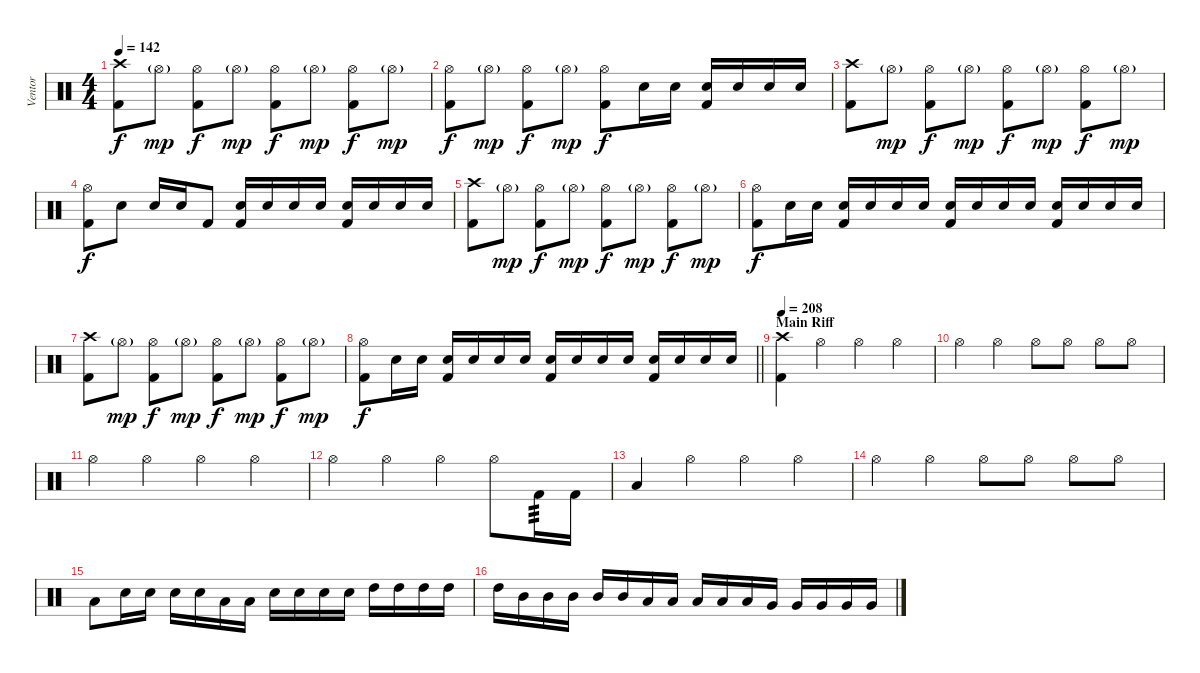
\track ("Ventor" "Ventor") {instrument percussion}
\staff {score}
\articulation defaults
\ts (4 4)
\tempo 142
\clef neutral
\ks c
("Crash high (hit)" "Kick (hit) 2").8{dy f} "Hi-Hat (open)"{g}.8{dy mp} ("Hi-Hat (open)" "Kick (hit) 2").8{dy f} "Hi-Hat (open)"{g}.8{dy mp} ("Hi-Hat (open)" "Kick (hit) 2").8{dy f} "Hi-Hat (open)"{g}.8{dy mp} ("Hi-Hat (open)" "Kick (hit) 2").8{dy f} "Hi-Hat (open)"{g}.8{dy mp} |
("Hi-Hat (open)" "Kick (hit) 2").8{dy f} "Hi-Hat (open)"{g}.8{dy mp} ("Hi-Hat (open)" "Kick (hit) 2").8{dy f} "Hi-Hat (open)"{g}.8{dy mp} ("Hi-Hat (open)" "Kick (hit) 2").8{dy f} "Electric Snare (hit)".16 "Electric Snare (hit)".16 ("Electric Snare (hit)" "Kick (hit) 2").16 "Electric Snare (hit)".16 "Electric Snare (hit)".16 "Electric Snare (hit)".16 |
("Crash high (hit)" "Kick (hit) 2").8 "Hi-Hat (open)"{g}.8{dy mp} ("Hi-Hat (open)" "Kick (hit) 2").8{dy f} "Hi-Hat (open)"{g}.8{dy mp} ("Hi-Hat (open)" "Kick (hit) 2").8{dy f} "Hi-Hat (open)"{g}.8{dy mp} ("Hi-Hat (open)" "Kick (hit) 2").8{dy f} "Hi-Hat (open)"{g}.8{dy mp} |
("Hi-Hat (open)" "Kick (hit) 2").8{dy f} "Electric Snare (hit)".8 "Electric Snare (hit)".16 "Electric Snare (hit)".16 "Kick (hit) 2".8 ("Electric Snare (hit)" "Kick (hit) 2").16 "Electric Snare (hit)".16 "Electric Snare (hit)".16 "Electric Snare (hit)".16 ("Electric Snare (hit)" "Kick (hit) 2").16 "Electric Snare (hit)".16 "Electric Snare (hit)".16 "Electric Snare (hit)".16 |
("Crash high (hit)" "Kick (hit) 2").8 "Hi-Hat (open)"{g}.8{dy mp} ("Hi-Hat (open)" "Kick (hit) 2").8{dy f} "Hi-Hat (open)"{g}.8{dy mp} ("Hi-Hat (open)" "Kick (hit) 2").8{dy f} "Hi-Hat (open)"{g}.8{dy mp} ("Hi-Hat (open)" "Kick (hit) 2").8{dy f} "Hi-Hat (open)"{g}.8{dy mp} |
("Hi-Hat (open)" "Kick (hit) 2").8{dy f} "Electric Snare (hit)".16 "Electric Snare (hit)".16 ("Electric Snare (hit)" "Kick (hit) 2").16 "Electric Snare (hit)".16 "Electric Snare (hit)".16 "Electric Snare (hit)".16 ("Electric Snare (hit)" "Kick (hit) 2").16 "Electric Snare (hit)".16 "Electric Snare (hit)".16 "Electric Snare (hit)".16 ("Electric Snare (hit)" "Kick (hit) 2").16 "Electric Snare (hit)".16 "Electric Snare (hit)".16 "Electric Snare (hit)".16 |
("Crash high (hit)" "Kick (hit) 2").8 "Hi-Hat (open)"{g}.8{dy mp} ("Hi-Hat (open)" "Kick (hit) 2").8{dy f} "Hi-Hat (open)"{g}.8{dy mp} ("Hi-Hat (open)" "Kick (hit) 2").8{dy f} "Hi-Hat (open)"{g}.8{dy mp} ("Hi-Hat (open)" "Kick (hit) 2").8{dy f} "Hi-Hat (open)"{g}.8{dy mp} |
\barLineRight lightlight
("Hi-Hat (open)" "Kick (hit) 2").8{dy f} "Electric Snare (hit)".16 "Electric Snare (hit)".16 ("Electric Snare (hit)" "Kick (hit) 2").16 "Electric Snare (hit)".16 "Electric Snare (hit)".16 "Electric Snare (hit)".16 ("Electric Snare (hit)" "Kick (hit) 2").16 "Electric Snare (hit)".16 "Electric Snare (hit)".16 "Electric Snare (hit)".16 ("Electric Snare (hit)" "Kick (hit) 2").16 "Electric Snare (hit)".16 "Electric Snare (hit)".16 "Electric Snare (hit)".16 |
\section ("" "Main Riff")
\tempo 208
("Crash high (hit)" "Kick (hit) 2").4 "Hi-Hat (open)".4 "Hi-Hat (open)".4 "Hi-Hat (open)".4 |
"Hi-Hat (open)".4 "Hi-Hat (open)".4 "Hi-Hat (open)".8 "Hi-Hat (open)".8 "Hi-Hat (open)".8 "Hi-Hat (open)".8 |
"Hi-Hat (open)".4 "Hi-Hat (open)".4 "Hi-Hat (open)".4 "Hi-Hat (open)".4 |
"Hi-Hat (open)".4 "Hi-Hat (open)".4 "Hi-Hat (open)".4 "Hi-Hat (open)".8 "Kick (hit) 2".16{tp 3} "Kick (hit) 2".16 |
"Low Tom (hit)".4 "Hi-Hat (open)".4 "Hi-Hat (open)".4 "Hi-Hat (open)".4 |
"Hi-Hat (open)".4 "Hi-Hat (open)".4 "Hi-Hat (open)".8 "Hi-Hat (open)".8 "Hi-Hat (open)".8 "Hi-Hat (open)".8 |
"Low Tom (hit)".8 "Electric Snare (hit)".16 "Electric Snare (hit)".16 "Electric Snare (hit)".16 "Electric Snare (hit)".16 "Low Tom (hit)".16 "Low Tom (hit)".16 "Electric Snare (hit)".16 "Electric Snare (hit)".16 "Electric Snare (hit)".16 "Electric Snare (hit)".16 "High Tom (hit)".16 "High Tom (hit)".16 "High Tom (hit)".16 "High Tom (hit)".16 |
"High Tom (hit)".16 "Mid Tom (hit)".16 "Mid Tom (hit)".16 "Mid Tom (hit)".16 "Mid Tom (hit)".16 "Mid Tom (hit)".16 "Low Tom (hit)".16 "Low Tom (hit)".16 "Low Tom (hit)".16 "Low Tom (hit)".16 "Low Tom (hit)".16 "Very Low Tom (hit)".16 "Very Low Tom (hit)".16 "Very Low Tom (hit)".16 "Very Low Tom (hit)".16 "Very Low Tom (hit)".16
